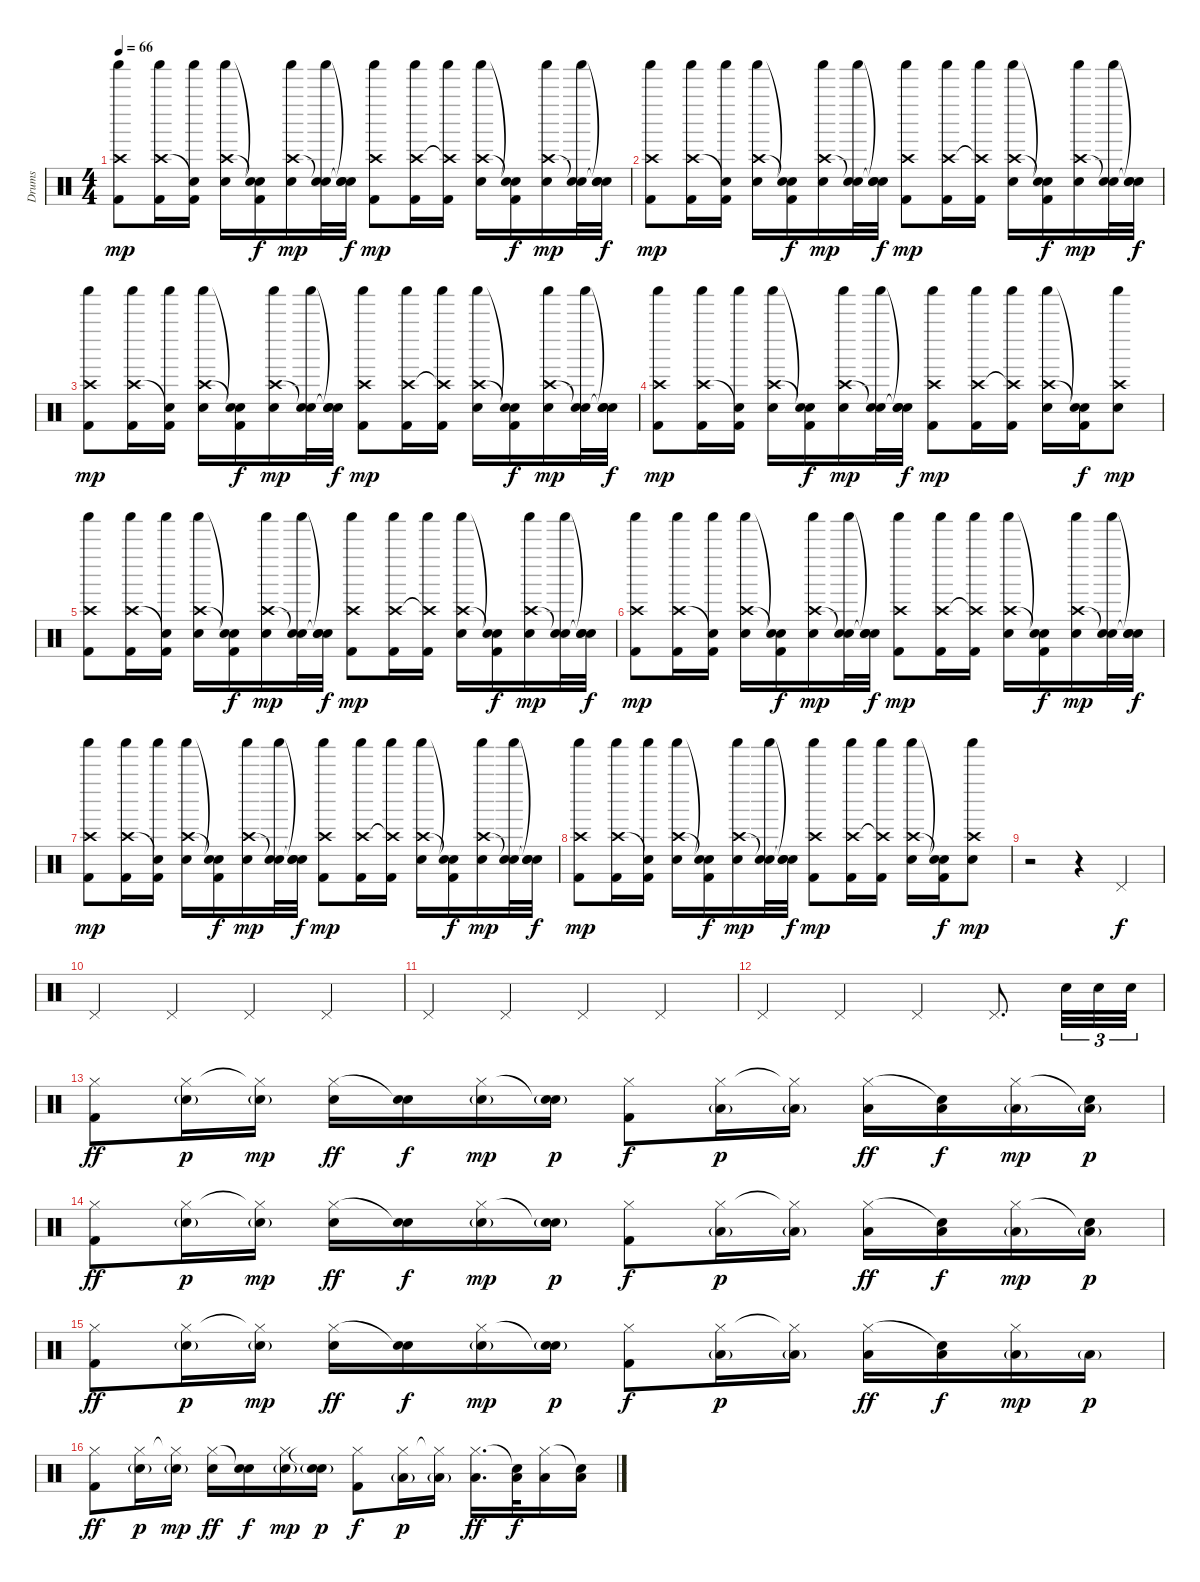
\track ("Drums" "Drums") {instrument percussion}
\staff {score}
\articulation defaults
\ts (4 4)
\tempo 66
\clef neutral
\ks c
("Crash high (hit)" "Shaker (hit)" "Kick (hit) 2").8{dy mp} ("Crash high (hit)" "Shaker (hit)" "Kick (hit) 2").16 ("Snare (hit)"{t} "Shaker (hit)" "Kick (hit) 2").16 ("Crash high (hit)" "Shaker (hit)" "Snare (hit) 2").16 ("Snare (hit)"{t} "Snare (hit)"{t} "Kick (hit) 2").16{dy f} ("Crash high (hit)" "Shaker (hit)" "Snare (hit) 2").16{dy mp} ("Snare (hit)"{t} "Shaker (hit)" "Snare (hit) 2").32 ("Snare (hit)"{t} "Snare (hit)"{t} "Snare (hit) 2").32{dy f} ("Crash high (hit)" "Shaker (hit)" "Kick (hit) 2").8{dy mp} ("Crash high (hit)" "Shaker (hit)" "Kick (hit) 2").16 ("Crash high (hit)"{t} "Shaker (hit)" "Kick (hit) 2").16 ("Crash high (hit)" "Shaker (hit)" "Snare (hit) 2").16 ("Snare (hit)"{t} "Snare (hit)"{t} "Kick (hit) 2").16{dy f} ("Crash high (hit)" "Shaker (hit)" "Snare (hit) 2").16{dy mp} ("Snare (hit)"{t} "Shaker (hit)" "Snare (hit) 2").32 ("Snare (hit)"{t} "Snare (hit)"{t} "Snare (hit) 2").32{dy f} |
("Crash high (hit)" "Shaker (hit)" "Kick (hit) 2").8{dy mp} ("Crash high (hit)" "Shaker (hit)" "Kick (hit) 2").16 ("Snare (hit)"{t} "Shaker (hit)" "Kick (hit) 2").16 ("Crash high (hit)" "Shaker (hit)" "Snare (hit) 2").16 ("Snare (hit)"{t} "Snare (hit)"{t} "Kick (hit) 2").16{dy f} ("Crash high (hit)" "Shaker (hit)" "Snare (hit) 2").16{dy mp} ("Snare (hit)"{t} "Shaker (hit)" "Snare (hit) 2").32 ("Snare (hit)"{t} "Snare (hit)"{t} "Snare (hit) 2").32{dy f} ("Crash high (hit)" "Shaker (hit)" "Kick (hit) 2").8{dy mp} ("Crash high (hit)" "Shaker (hit)" "Kick (hit) 2").16 ("Crash high (hit)"{t} "Shaker (hit)" "Kick (hit) 2").16 ("Crash high (hit)" "Shaker (hit)" "Snare (hit) 2").16 ("Snare (hit)"{t} "Snare (hit)"{t} "Kick (hit) 2").16{dy f} ("Crash high (hit)" "Shaker (hit)" "Snare (hit) 2").16{dy mp} ("Snare (hit)"{t} "Shaker (hit)" "Snare (hit) 2").32 ("Snare (hit)"{t} "Snare (hit)"{t} "Snare (hit) 2").32{dy f} |
("Crash high (hit)" "Shaker (hit)" "Kick (hit) 2").8{dy mp} ("Crash high (hit)" "Shaker (hit)" "Kick (hit) 2").16 ("Snare (hit)"{t} "Shaker (hit)" "Kick (hit) 2").16 ("Crash high (hit)" "Shaker (hit)" "Snare (hit) 2").16 ("Snare (hit)"{t} "Snare (hit)"{t} "Kick (hit) 2").16{dy f} ("Crash high (hit)" "Shaker (hit)" "Snare (hit) 2").16{dy mp} ("Snare (hit)"{t} "Shaker (hit)" "Snare (hit) 2").32 ("Snare (hit)"{t} "Snare (hit)"{t} "Snare (hit) 2").32{dy f} ("Crash high (hit)" "Shaker (hit)" "Kick (hit) 2").8{dy mp} ("Crash high (hit)" "Shaker (hit)" "Kick (hit) 2").16 ("Crash high (hit)"{t} "Shaker (hit)" "Kick (hit) 2").16 ("Crash high (hit)" "Shaker (hit)" "Snare (hit) 2").16 ("Snare (hit)"{t} "Snare (hit)"{t} "Kick (hit) 2").16{dy f} ("Crash high (hit)" "Shaker (hit)" "Snare (hit) 2").16{dy mp} ("Snare (hit)"{t} "Shaker (hit)" "Snare (hit) 2").32 ("Snare (hit)"{t} "Snare (hit)"{t} "Snare (hit) 2").32{dy f} |
("Crash high (hit)" "Shaker (hit)" "Kick (hit) 2").8{dy mp} ("Crash high (hit)" "Shaker (hit)" "Kick (hit) 2").16 ("Snare (hit)"{t} "Shaker (hit)" "Kick (hit) 2").16 ("Crash high (hit)" "Shaker (hit)" "Snare (hit) 2").16 ("Snare (hit)"{t} "Snare (hit)"{t} "Kick (hit) 2").16{dy f} ("Crash high (hit)" "Shaker (hit)" "Snare (hit) 2").16{dy mp} ("Snare (hit)"{t} "Shaker (hit)" "Snare (hit) 2").32 ("Snare (hit)"{t} "Snare (hit)"{t} "Snare (hit) 2").32{dy f} ("Crash high (hit)" "Shaker (hit)" "Kick (hit) 2").8{dy mp} ("Crash high (hit)" "Shaker (hit)" "Kick (hit) 2").16 ("Crash high (hit)"{t} "Shaker (hit)" "Kick (hit) 2").16 ("Crash high (hit)" "Shaker (hit)" "Snare (hit) 2").16 ("Snare (hit)"{t} "Snare (hit)"{t} "Kick (hit) 2").16{dy f} ("Crash high (hit)" "Shaker (hit)" "Snare (hit) 2").8{dy mp} |
("Crash high (hit)" "Shaker (hit)" "Kick (hit) 2").8 ("Crash high (hit)" "Shaker (hit)" "Kick (hit) 2").16 ("Snare (hit)"{t} "Shaker (hit)" "Kick (hit) 2").16 ("Crash high (hit)" "Shaker (hit)" "Snare (hit) 2").16 ("Snare (hit)"{t} "Snare (hit)"{t} "Kick (hit) 2").16{dy f} ("Crash high (hit)" "Shaker (hit)" "Snare (hit) 2").16{dy mp} ("Snare (hit)"{t} "Shaker (hit)" "Snare (hit) 2").32 ("Snare (hit)"{t} "Snare (hit)"{t} "Snare (hit) 2").32{dy f} ("Crash high (hit)" "Shaker (hit)" "Kick (hit) 2").8{dy mp} ("Crash high (hit)" "Shaker (hit)" "Kick (hit) 2").16 ("Crash high (hit)"{t} "Shaker (hit)" "Kick (hit) 2").16 ("Crash high (hit)" "Shaker (hit)" "Snare (hit) 2").16 ("Snare (hit)"{t} "Snare (hit)"{t} "Kick (hit) 2").16{dy f} ("Crash high (hit)" "Shaker (hit)" "Snare (hit) 2").16{dy mp} ("Snare (hit)"{t} "Shaker (hit)" "Snare (hit) 2").32 ("Snare (hit)"{t} "Snare (hit)"{t} "Snare (hit) 2").32{dy f} |
("Crash high (hit)" "Shaker (hit)" "Kick (hit) 2").8{dy mp} ("Crash high (hit)" "Shaker (hit)" "Kick (hit) 2").16 ("Snare (hit)"{t} "Shaker (hit)" "Kick (hit) 2").16 ("Crash high (hit)" "Shaker (hit)" "Snare (hit) 2").16 ("Snare (hit)"{t} "Snare (hit)"{t} "Kick (hit) 2").16{dy f} ("Crash high (hit)" "Shaker (hit)" "Snare (hit) 2").16{dy mp} ("Snare (hit)"{t} "Shaker (hit)" "Snare (hit) 2").32 ("Snare (hit)"{t} "Snare (hit)"{t} "Snare (hit) 2").32{dy f} ("Crash high (hit)" "Shaker (hit)" "Kick (hit) 2").8{dy mp} ("Crash high (hit)" "Shaker (hit)" "Kick (hit) 2").16 ("Crash high (hit)"{t} "Shaker (hit)" "Kick (hit) 2").16 ("Crash high (hit)" "Shaker (hit)" "Snare (hit) 2").16 ("Snare (hit)"{t} "Snare (hit)"{t} "Kick (hit) 2").16{dy f} ("Crash high (hit)" "Shaker (hit)" "Snare (hit) 2").16{dy mp} ("Snare (hit)"{t} "Shaker (hit)" "Snare (hit) 2").32 ("Snare (hit)"{t} "Snare (hit)"{t} "Snare (hit) 2").32{dy f} |
("Crash high (hit)" "Shaker (hit)" "Kick (hit) 2").8{dy mp} ("Crash high (hit)" "Shaker (hit)" "Kick (hit) 2").16 ("Snare (hit)"{t} "Shaker (hit)" "Kick (hit) 2").16 ("Crash high (hit)" "Shaker (hit)" "Snare (hit) 2").16 ("Snare (hit)"{t} "Snare (hit)"{t} "Kick (hit) 2").16{dy f} ("Crash high (hit)" "Shaker (hit)" "Snare (hit) 2").16{dy mp} ("Snare (hit)"{t} "Shaker (hit)" "Snare (hit) 2").32 ("Snare (hit)"{t} "Snare (hit)"{t} "Snare (hit) 2").32{dy f} ("Crash high (hit)" "Shaker (hit)" "Kick (hit) 2").8{dy mp} ("Crash high (hit)" "Shaker (hit)" "Kick (hit) 2").16 ("Crash high (hit)"{t} "Shaker (hit)" "Kick (hit) 2").16 ("Crash high (hit)" "Shaker (hit)" "Snare (hit) 2").16 ("Snare (hit)"{t} "Snare (hit)"{t} "Kick (hit) 2").16{dy f} ("Crash high (hit)" "Shaker (hit)" "Snare (hit) 2").16{dy mp} ("Snare (hit)"{t} "Shaker (hit)" "Snare (hit) 2").32 ("Snare (hit)"{t} "Snare (hit)"{t} "Snare (hit) 2").32{dy f} |
("Crash high (hit)" "Shaker (hit)" "Kick (hit) 2").8{dy mp} ("Crash high (hit)" "Shaker (hit)" "Kick (hit) 2").16 ("Snare (hit)"{t} "Shaker (hit)" "Kick (hit) 2").16 ("Crash high (hit)" "Shaker (hit)" "Snare (hit) 2").16 ("Snare (hit)"{t} "Snare (hit)"{t} "Kick (hit) 2").16{dy f} ("Crash high (hit)" "Shaker (hit)" "Snare (hit) 2").16{dy mp} ("Snare (hit)"{t} "Shaker (hit)" "Snare (hit) 2").32 ("Snare (hit)"{t} "Snare (hit)"{t} "Snare (hit) 2").32{dy f} ("Crash high (hit)" "Shaker (hit)" "Kick (hit) 2").8{dy mp} ("Crash high (hit)" "Shaker (hit)" "Kick (hit) 2").16 ("Crash high (hit)"{t} "Shaker (hit)" "Kick (hit) 2").16 ("Crash high (hit)" "Shaker (hit)" "Snare (hit) 2").16 ("Snare (hit)"{t} "Snare (hit)"{t} "Kick (hit) 2").16{dy f} ("Crash high (hit)" "Shaker (hit)" "Snare (hit) 2").8{dy mp} |
r.2 r.4 "Pedal Hi-Hat (hit)".4{dy f} |
"Pedal Hi-Hat (hit)".4 "Pedal Hi-Hat (hit)".4 "Pedal Hi-Hat (hit)".4 "Pedal Hi-Hat (hit)".4 |
"Pedal Hi-Hat (hit)".4 "Pedal Hi-Hat (hit)".4 "Pedal Hi-Hat (hit)".4 "Pedal Hi-Hat (hit)".4 |
"Pedal Hi-Hat (hit)".4 "Pedal Hi-Hat (hit)".4 "Pedal Hi-Hat (hit)".4 "Pedal Hi-Hat (hit)".8{d} "Snare (hit) 2".32{tu (3 2)} "Snare (hit) 2".32{tu (3 2)} "Snare (hit) 2".32{tu (3 2)} |
("Hi-Hat (closed)" "Kick (hit) 2").8{dy ff} ("Hi-Hat (closed)" "Snare (hit) 2"{g}).16{dy p} ("Hi-Hat (closed)"{t} "Snare (hit) 2"{g}).16{dy mp} ("Hi-Hat (closed)" "Snare (hit) 2").16{dy ff} ("Snare (hit)"{t} "Snare (hit) 2").16{dy f} ("Hi-Hat (closed)" "Snare (hit) 2"{g}).16{dy mp} ("Snare (hit)"{t} "Snare (hit) 2"{g}).16{dy p} ("Hi-Hat (closed)" "Kick (hit) 2").8{dy f} ("Hi-Hat (closed)" "Low Floor Tom (hit)"{g}).16{dy p} ("Hi-Hat (closed)"{t} "Low Floor Tom (hit)"{g}).16 ("Hi-Hat (closed)" "Low Floor Tom (hit)").16{dy ff} ("Snare (hit)"{t} "Low Floor Tom (hit)").16{dy f} ("Hi-Hat (closed)" "Low Floor Tom (hit)"{g}).16{dy mp} ("Snare (hit)"{t} "Low Floor Tom (hit)"{g}).16{dy p} |
("Hi-Hat (closed)" "Kick (hit) 2").8{dy ff} ("Hi-Hat (closed)" "Snare (hit) 2"{g}).16{dy p} ("Hi-Hat (closed)"{t} "Snare (hit) 2"{g}).16{dy mp} ("Hi-Hat (closed)" "Snare (hit) 2").16{dy ff} ("Snare (hit)"{t} "Snare (hit) 2").16{dy f} ("Hi-Hat (closed)" "Snare (hit) 2"{g}).16{dy mp} ("Snare (hit)"{t} "Snare (hit) 2"{g}).16{dy p} ("Hi-Hat (closed)" "Kick (hit) 2").8{dy f} ("Hi-Hat (closed)" "Low Floor Tom (hit)"{g}).16{dy p} ("Hi-Hat (closed)"{t} "Low Floor Tom (hit)"{g}).16 ("Hi-Hat (closed)" "Low Floor Tom (hit)").16{dy ff} ("Snare (hit)"{t} "Low Floor Tom (hit)").16{dy f} ("Hi-Hat (closed)" "Low Floor Tom (hit)"{g}).16{dy mp} ("Snare (hit)"{t} "Low Floor Tom (hit)"{g}).16{dy p} |
("Hi-Hat (closed)" "Kick (hit) 2").8{dy ff} ("Hi-Hat (closed)" "Snare (hit) 2"{g}).16{dy p} ("Hi-Hat (closed)"{t} "Snare (hit) 2"{g}).16{dy mp} ("Hi-Hat (closed)" "Snare (hit) 2").16{dy ff} ("Snare (hit)"{t} "Snare (hit) 2").16{dy f} ("Hi-Hat (closed)" "Snare (hit) 2"{g}).16{dy mp} ("Snare (hit)"{t} "Snare (hit) 2"{g}).16{dy p} ("Hi-Hat (closed)" "Kick (hit) 2").8{dy f} ("Hi-Hat (closed)" "Low Floor Tom (hit)"{g}).16{dy p} ("Hi-Hat (closed)"{t} "Low Floor Tom (hit)"{g}).16 ("Hi-Hat (closed)" "Low Floor Tom (hit)").16{dy ff} ("Snare (hit)"{t} "Low Floor Tom (hit)").16{dy f} ("Hi-Hat (closed)" "Low Floor Tom (hit)"{g}).16{dy mp} "Low Floor Tom (hit)"{g}.16{dy p} |
("Hi-Hat (closed)" "Kick (hit) 2").8{dy ff} ("Hi-Hat (closed)" "Snare (hit) 2"{g}).16{dy p} ("Hi-Hat (closed)"{t} "Snare (hit) 2"{g}).16{dy mp} ("Hi-Hat (closed)" "Snare (hit) 2").16{dy ff} ("Snare (hit)"{t} "Snare (hit) 2").16{dy f} ("Hi-Hat (closed)" "Snare (hit) 2"{g}).16{dy mp} ("Snare (hit)"{t} "Snare (hit) 2"{g}).16{dy p} ("Hi-Hat (closed)" "Kick (hit) 2").8{dy f} ("Hi-Hat (closed)" "Low Floor Tom (hit)"{g}).16{dy p} ("Hi-Hat (closed)"{t} "Low Floor Tom (hit)"{g}).16 ("Hi-Hat (closed)" "Low Floor Tom (hit)").16{d dy ff} ("Snare (hit)"{t} "Low Floor Tom (hit)").32{dy f} ("Hi-Hat (closed)" "Low Floor Tom (hit)").16 ("Snare (hit)"{t} "Low Floor Tom (hit)").16
